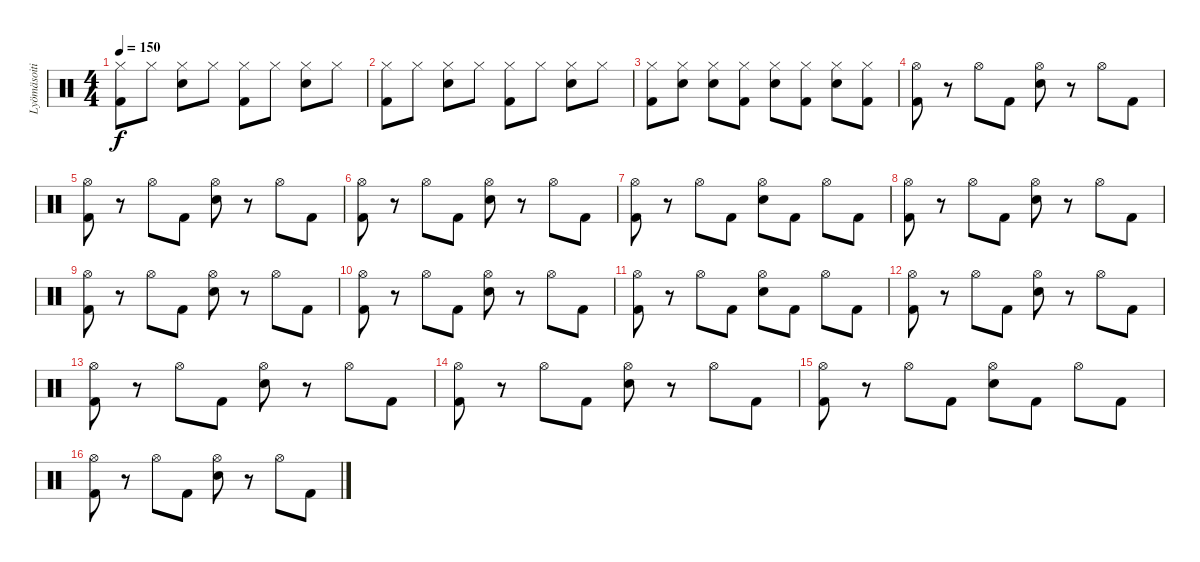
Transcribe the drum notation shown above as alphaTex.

\track ("Lyömäsoitin" "Lyömäsoiti") {instrument percussion}
\staff {score}
\articulation defaults
\ts (4 4)
\tempo 150
\clef neutral
\ks c
("Hi-Hat (closed)" "Kick (hit) 2").8{dy f} "Hi-Hat (closed)".8 ("Hi-Hat (closed)" "Electric Snare (hit)").8 "Hi-Hat (closed)".8 ("Hi-Hat (closed)" "Kick (hit) 2").8 "Hi-Hat (closed)".8 ("Hi-Hat (closed)" "Electric Snare (hit)").8 "Hi-Hat (closed)".8 |
("Hi-Hat (closed)" "Kick (hit) 2").8 "Hi-Hat (closed)".8 ("Hi-Hat (closed)" "Electric Snare (hit)").8 "Hi-Hat (closed)".8 ("Hi-Hat (closed)" "Kick (hit) 2").8 "Hi-Hat (closed)".8 ("Hi-Hat (closed)" "Electric Snare (hit)").8 "Hi-Hat (closed)".8 |
("Hi-Hat (closed)" "Kick (hit) 2").8 ("Hi-Hat (closed)" "Electric Snare (hit)").8 ("Hi-Hat (closed)" "Electric Snare (hit)").8 ("Hi-Hat (closed)" "Kick (hit) 2").8 ("Hi-Hat (closed)" "Electric Snare (hit)").8 ("Hi-Hat (closed)" "Kick (hit) 2").8 ("Hi-Hat (closed)" "Electric Snare (hit)").8 ("Hi-Hat (closed)" "Kick (hit) 2").8 |
("Hi-Hat (open)" "Kick (hit) 2").8 r.8 "Hi-Hat (open)".8 "Kick (hit) 2".8 ("Hi-Hat (open)" "Electric Snare (hit)").8 r.8 "Hi-Hat (open)".8 "Kick (hit) 2".8 |
("Hi-Hat (open)" "Kick (hit) 2").8 r.8 "Hi-Hat (open)".8 "Kick (hit) 2".8 ("Hi-Hat (open)" "Electric Snare (hit)").8 r.8 "Hi-Hat (open)".8 "Kick (hit) 2".8 |
("Hi-Hat (open)" "Kick (hit) 2").8 r.8 "Hi-Hat (open)".8 "Kick (hit) 2".8 ("Hi-Hat (open)" "Electric Snare (hit)").8 r.8 "Hi-Hat (open)".8 "Kick (hit) 2".8 |
("Hi-Hat (open)" "Kick (hit) 2").8 r.8 "Hi-Hat (open)".8 "Kick (hit) 2".8 ("Hi-Hat (open)" "Electric Snare (hit)").8 "Kick (hit) 2".8 "Hi-Hat (open)".8 "Kick (hit) 2".8 |
("Hi-Hat (open)" "Kick (hit) 2").8 r.8 "Hi-Hat (open)".8 "Kick (hit) 2".8 ("Hi-Hat (open)" "Electric Snare (hit)").8 r.8 "Hi-Hat (open)".8 "Kick (hit) 2".8 |
("Hi-Hat (open)" "Kick (hit) 2").8 r.8 "Hi-Hat (open)".8 "Kick (hit) 2".8 ("Hi-Hat (open)" "Electric Snare (hit)").8 r.8 "Hi-Hat (open)".8 "Kick (hit) 2".8 |
("Hi-Hat (open)" "Kick (hit) 2").8 r.8 "Hi-Hat (open)".8 "Kick (hit) 2".8 ("Hi-Hat (open)" "Electric Snare (hit)").8 r.8 "Hi-Hat (open)".8 "Kick (hit) 2".8 |
("Hi-Hat (open)" "Kick (hit) 2").8 r.8 "Hi-Hat (open)".8 "Kick (hit) 2".8 ("Hi-Hat (open)" "Electric Snare (hit)").8 "Kick (hit) 2".8 "Hi-Hat (open)".8 "Kick (hit) 2".8 |
("Hi-Hat (open)" "Kick (hit) 2").8 r.8 "Hi-Hat (open)".8 "Kick (hit) 2".8 ("Hi-Hat (open)" "Electric Snare (hit)").8 r.8 "Hi-Hat (open)".8 "Kick (hit) 2".8 |
("Hi-Hat (open)" "Kick (hit) 2").8 r.8 "Hi-Hat (open)".8 "Kick (hit) 2".8 ("Hi-Hat (open)" "Electric Snare (hit)").8 r.8 "Hi-Hat (open)".8 "Kick (hit) 2".8 |
("Hi-Hat (open)" "Kick (hit) 2").8 r.8 "Hi-Hat (open)".8 "Kick (hit) 2".8 ("Hi-Hat (open)" "Electric Snare (hit)").8 r.8 "Hi-Hat (open)".8 "Kick (hit) 2".8 |
("Hi-Hat (open)" "Kick (hit) 2").8 r.8 "Hi-Hat (open)".8 "Kick (hit) 2".8 ("Hi-Hat (open)" "Electric Snare (hit)").8 "Kick (hit) 2".8 "Hi-Hat (open)".8 "Kick (hit) 2".8 |
("Hi-Hat (open)" "Kick (hit) 2").8 r.8 "Hi-Hat (open)".8 "Kick (hit) 2".8 ("Hi-Hat (open)" "Electric Snare (hit)").8 r.8 "Hi-Hat (open)".8 "Kick (hit) 2".8
